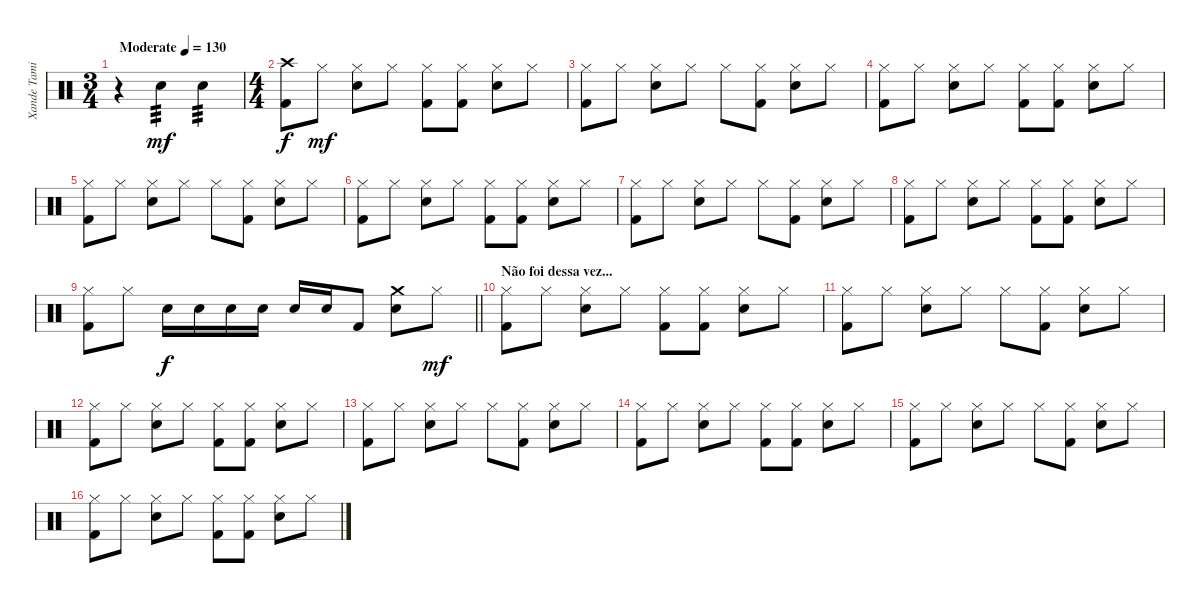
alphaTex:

\track ("Xande Tamietti" "Xande Tami") {instrument percussion}
\staff {score}
\articulation defaults
\ts (3 4)
\tempo (130 "Moderate")
\clef neutral
\ks c
r.4{dy mf} "Electric Snare (hit)".4{tp 3} "Electric Snare (hit)".4{tp 3} |
\ts (4 4)
("Crash high (hit)" "Kick (hit) 2").8{dy f} "Hi-Hat (closed)".8{dy mf} ("Hi-Hat (closed)" "Electric Snare (hit)").8 "Hi-Hat (closed)".8 ("Hi-Hat (closed)" "Kick (hit) 2").8 ("Hi-Hat (closed)" "Kick (hit) 2").8 ("Hi-Hat (closed)" "Electric Snare (hit)").8 "Hi-Hat (closed)".8 |
("Hi-Hat (closed)" "Kick (hit) 2").8 "Hi-Hat (closed)".8 ("Hi-Hat (closed)" "Electric Snare (hit)").8 "Hi-Hat (closed)".8 "Hi-Hat (closed)".8 ("Hi-Hat (closed)" "Kick (hit) 2").8 ("Hi-Hat (closed)" "Electric Snare (hit)").8 "Hi-Hat (closed)".8 |
("Hi-Hat (closed)" "Kick (hit) 2").8 "Hi-Hat (closed)".8 ("Hi-Hat (closed)" "Electric Snare (hit)").8 "Hi-Hat (closed)".8 ("Hi-Hat (closed)" "Kick (hit) 2").8 ("Hi-Hat (closed)" "Kick (hit) 2").8 ("Hi-Hat (closed)" "Electric Snare (hit)").8 "Hi-Hat (closed)".8 |
("Hi-Hat (closed)" "Kick (hit) 2").8 "Hi-Hat (closed)".8 ("Hi-Hat (closed)" "Electric Snare (hit)").8 "Hi-Hat (closed)".8 "Hi-Hat (closed)".8 ("Hi-Hat (closed)" "Kick (hit) 2").8 ("Hi-Hat (closed)" "Electric Snare (hit)").8 "Hi-Hat (closed)".8 |
("Hi-Hat (closed)" "Kick (hit) 2").8 "Hi-Hat (closed)".8 ("Hi-Hat (closed)" "Electric Snare (hit)").8 "Hi-Hat (closed)".8 ("Hi-Hat (closed)" "Kick (hit) 2").8 ("Hi-Hat (closed)" "Kick (hit) 2").8 ("Hi-Hat (closed)" "Electric Snare (hit)").8 "Hi-Hat (closed)".8 |
("Hi-Hat (closed)" "Kick (hit) 2").8 "Hi-Hat (closed)".8 ("Hi-Hat (closed)" "Electric Snare (hit)").8 "Hi-Hat (closed)".8 "Hi-Hat (closed)".8 ("Hi-Hat (closed)" "Kick (hit) 2").8 ("Hi-Hat (closed)" "Electric Snare (hit)").8 "Hi-Hat (closed)".8 |
("Hi-Hat (closed)" "Kick (hit) 2").8 "Hi-Hat (closed)".8 ("Hi-Hat (closed)" "Electric Snare (hit)").8 "Hi-Hat (closed)".8 ("Hi-Hat (closed)" "Kick (hit) 2").8 ("Hi-Hat (closed)" "Kick (hit) 2").8 ("Hi-Hat (closed)" "Electric Snare (hit)").8 "Hi-Hat (closed)".8 |
\barLineRight lightlight
("Hi-Hat (closed)" "Kick (hit) 2").8 "Hi-Hat (closed)".8 "Electric Snare (hit)".16{dy f} "Electric Snare (hit)".16 "Electric Snare (hit)".16 "Electric Snare (hit)".16 "Electric Snare (hit)".16 "Electric Snare (hit)".16 "Kick (hit) 2".8 ("Crash medium (hit)" "Electric Snare (hit)").8 "Hi-Hat (closed)".8{dy mf} |
\section ("" "Não foi dessa vez...")
("Hi-Hat (closed)" "Kick (hit) 2").8 "Hi-Hat (closed)".8 ("Hi-Hat (closed)" "Electric Snare (hit)").8 "Hi-Hat (closed)".8 ("Hi-Hat (closed)" "Kick (hit) 2").8 ("Hi-Hat (closed)" "Kick (hit) 2").8 ("Hi-Hat (closed)" "Electric Snare (hit)").8 "Hi-Hat (closed)".8 |
("Hi-Hat (closed)" "Kick (hit) 2").8 "Hi-Hat (closed)".8 ("Hi-Hat (closed)" "Electric Snare (hit)").8 "Hi-Hat (closed)".8 "Hi-Hat (closed)".8 ("Hi-Hat (closed)" "Kick (hit) 2").8 ("Hi-Hat (closed)" "Electric Snare (hit)").8 "Hi-Hat (closed)".8 |
("Hi-Hat (closed)" "Kick (hit) 2").8 "Hi-Hat (closed)".8 ("Hi-Hat (closed)" "Electric Snare (hit)").8 "Hi-Hat (closed)".8 ("Hi-Hat (closed)" "Kick (hit) 2").8 ("Hi-Hat (closed)" "Kick (hit) 2").8 ("Hi-Hat (closed)" "Electric Snare (hit)").8 "Hi-Hat (closed)".8 |
("Hi-Hat (closed)" "Kick (hit) 2").8 "Hi-Hat (closed)".8 ("Hi-Hat (closed)" "Electric Snare (hit)").8 "Hi-Hat (closed)".8 "Hi-Hat (closed)".8 ("Hi-Hat (closed)" "Kick (hit) 2").8 ("Hi-Hat (closed)" "Electric Snare (hit)").8 "Hi-Hat (closed)".8 |
("Hi-Hat (closed)" "Kick (hit) 2").8 "Hi-Hat (closed)".8 ("Hi-Hat (closed)" "Electric Snare (hit)").8 "Hi-Hat (closed)".8 ("Hi-Hat (closed)" "Kick (hit) 2").8 ("Hi-Hat (closed)" "Kick (hit) 2").8 ("Hi-Hat (closed)" "Electric Snare (hit)").8 "Hi-Hat (closed)".8 |
("Hi-Hat (closed)" "Kick (hit) 2").8 "Hi-Hat (closed)".8 ("Hi-Hat (closed)" "Electric Snare (hit)").8 "Hi-Hat (closed)".8 "Hi-Hat (closed)".8 ("Hi-Hat (closed)" "Kick (hit) 2").8 ("Hi-Hat (closed)" "Electric Snare (hit)").8 "Hi-Hat (closed)".8 |
("Hi-Hat (closed)" "Kick (hit) 2").8 "Hi-Hat (closed)".8 ("Hi-Hat (closed)" "Electric Snare (hit)").8 "Hi-Hat (closed)".8 ("Hi-Hat (closed)" "Kick (hit) 2").8 ("Hi-Hat (closed)" "Kick (hit) 2").8 ("Hi-Hat (closed)" "Electric Snare (hit)").8 "Hi-Hat (closed)".8
